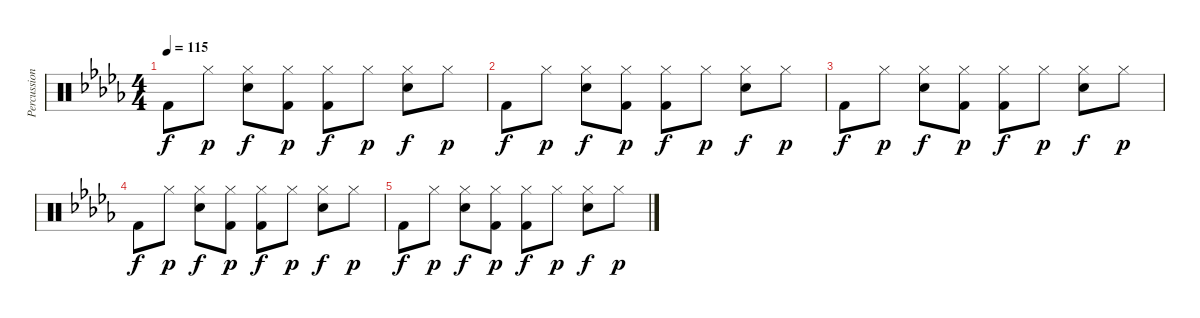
\track ("Percussion" "Percussion") {instrument percussion}
\staff {score}
\articulation defaults
\ts (4 4)
\tempo 115
\clef neutral
\ks db "Kick (hit) 2".8{dy f} "Hi-Hat (closed)".8{dy p}
("Hi-Hat (closed)" "Hand Clap (hit)").8{dy f} ("Hi-Hat (closed)" "Kick (hit) 2").8{dy p} ("Kick (hit) 2" "Hi-Hat (closed)").8{dy f} "Hi-Hat (closed)".8{dy p} ("Hand Clap (hit)" "Hi-Hat (closed)").8{dy f} "Hi-Hat (closed)".8{dy p} |
"Kick (hit) 2".8{dy f} "Hi-Hat (closed)".8{dy p} ("Hi-Hat (closed)" "Hand Clap (hit)").8{dy f} ("Hi-Hat (closed)" "Kick (hit) 2").8{dy p} ("Kick (hit) 2" "Hi-Hat (closed)").8{dy f} "Hi-Hat (closed)".8{dy p} ("Hand Clap (hit)" "Hi-Hat (closed)").8{dy f} "Hi-Hat (closed)".8{dy p} |
"Kick (hit) 2".8{dy f} "Hi-Hat (closed)".8{dy p} ("Hi-Hat (closed)" "Hand Clap (hit)").8{dy f} ("Hi-Hat (closed)" "Kick (hit) 2").8{dy p} ("Kick (hit) 2" "Hi-Hat (closed)").8{dy f} "Hi-Hat (closed)".8{dy p} ("Hand Clap (hit)" "Hi-Hat (closed)").8{dy f} "Hi-Hat (closed)".8{dy p} |
"Kick (hit) 2".8{dy f} "Hi-Hat (closed)".8{dy p} ("Hi-Hat (closed)" "Hand Clap (hit)").8{dy f} ("Hi-Hat (closed)" "Kick (hit) 2").8{dy p} ("Kick (hit) 2" "Hi-Hat (closed)").8{dy f} "Hi-Hat (closed)".8{dy p} ("Hand Clap (hit)" "Hi-Hat (closed)").8{dy f} "Hi-Hat (closed)".8{dy p} |
"Kick (hit) 2".8{dy f} "Hi-Hat (closed)".8{dy p} ("Hi-Hat (closed)" "Hand Clap (hit)").8{dy f} ("Hi-Hat (closed)" "Kick (hit) 2").8{dy p} ("Kick (hit) 2" "Hi-Hat (closed)").8{dy f} "Hi-Hat (closed)".8{dy p} ("Hand Clap (hit)" "Hi-Hat (closed)").8{dy f} "Hi-Hat (closed)".8{dy p}
